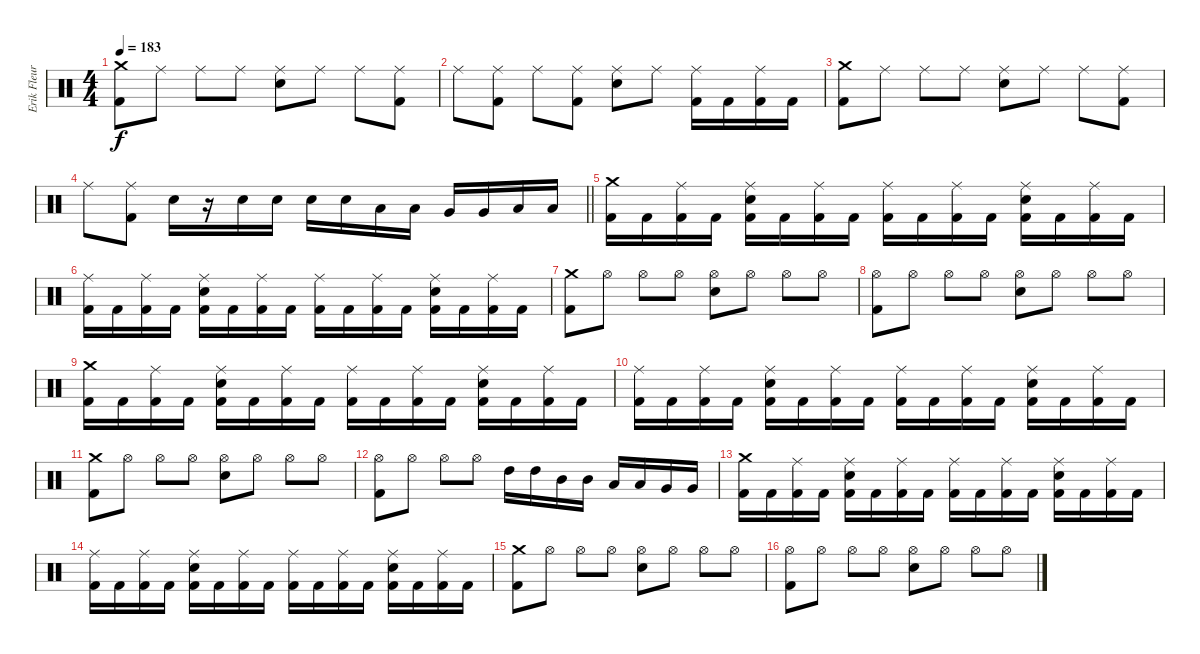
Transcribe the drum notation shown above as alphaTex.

\track ("Erik Fleuren" "Erik Fleur") {instrument percussion}
\staff {score}
\articulation defaults
\ts (4 4)
\tempo 183
\clef neutral
\ks c
("Crash medium (hit)" "Kick (hit) 2").8{dy f} "Ride (middle)".8 "Ride (middle)".8 "Ride (middle)".8 ("Ride (middle)" "Electric Snare (hit)").8 "Ride (middle)".8 "Ride (middle)".8 ("Ride (middle)" "Kick (hit) 2").8 |
"Ride (middle)".8 ("Ride (middle)" "Kick (hit) 2").8 "Ride (middle)".8 ("Ride (middle)" "Kick (hit) 2").8 ("Ride (middle)" "Electric Snare (hit)").8 "Ride (middle)".8 ("Ride (middle)" "Kick (hit) 2").16 "Kick (hit) 2".16 ("Ride (middle)" "Kick (hit) 2").16 "Kick (hit) 2".16 |
("Crash medium (hit)" "Kick (hit) 2").8 "Ride (middle)".8 "Ride (middle)".8 "Ride (middle)".8 ("Ride (middle)" "Electric Snare (hit)").8 "Ride (middle)".8 "Ride (middle)".8 ("Ride (middle)" "Kick (hit) 2").8 |
\barLineRight lightlight "Ride (middle)".8
("Ride (middle)" "Kick (hit) 2").8 "Electric Snare (hit)".16 r.16 "Electric Snare (hit)".16 "Electric Snare (hit)".16 "Electric Snare (hit)".16 "Electric Snare (hit)".16 "Low Tom (hit)".16 "Low Tom (hit)".16 "Very Low Tom (hit)".16 "Very Low Tom (hit)".16 "Low Floor Tom (hit)".16 "Low Floor Tom (hit)".16 |
("Crash medium (hit)" "Kick (hit) 2").16 "Kick (hit) 2".16 ("Ride (middle)" "Kick (hit) 2").16 "Kick (hit) 2".16 ("Ride (middle)" "Electric Snare (hit)" "Kick (hit) 2").16 "Kick (hit) 2".16 ("Ride (middle)" "Kick (hit) 2").16 "Kick (hit) 2".16 ("Ride (middle)" "Kick (hit) 2").16 "Kick (hit) 2".16 ("Ride (middle)" "Kick (hit) 2").16 "Kick (hit) 2".16 ("Ride (middle)" "Electric Snare (hit)" "Kick (hit) 2").16 "Kick (hit) 2".16 ("Ride (middle)" "Kick (hit) 2").16 "Kick (hit) 2".16 |
("Ride (middle)" "Kick (hit) 2").16 "Kick (hit) 2".16 ("Ride (middle)" "Kick (hit) 2").16 "Kick (hit) 2".16 ("Ride (middle)" "Electric Snare (hit)" "Kick (hit) 2").16 "Kick (hit) 2".16 ("Ride (middle)" "Kick (hit) 2").16 "Kick (hit) 2".16 ("Ride (middle)" "Kick (hit) 2").16 "Kick (hit) 2".16 ("Ride (middle)" "Kick (hit) 2").16 "Kick (hit) 2".16 ("Ride (middle)" "Electric Snare (hit)" "Kick (hit) 2").16 "Kick (hit) 2".16 ("Ride (middle)" "Kick (hit) 2").16 "Kick (hit) 2".16 |
("Crash medium (hit)" "Kick (hit) 2").8 "Hi-Hat (open)".8 "Hi-Hat (open)".8 "Hi-Hat (open)".8 ("Hi-Hat (open)" "Electric Snare (hit)").8 "Hi-Hat (open)".8 "Hi-Hat (open)".8 "Hi-Hat (open)".8 |
("Hi-Hat (open)" "Kick (hit) 2").8 "Hi-Hat (open)".8 "Hi-Hat (open)".8 "Hi-Hat (open)".8 ("Hi-Hat (open)" "Electric Snare (hit)").8 "Hi-Hat (open)".8 "Hi-Hat (open)".8 "Hi-Hat (open)".8 |
("Crash medium (hit)" "Kick (hit) 2").16 "Kick (hit) 2".16 ("Ride (middle)" "Kick (hit) 2").16 "Kick (hit) 2".16 ("Ride (middle)" "Electric Snare (hit)" "Kick (hit) 2").16 "Kick (hit) 2".16 ("Ride (middle)" "Kick (hit) 2").16 "Kick (hit) 2".16 ("Ride (middle)" "Kick (hit) 2").16 "Kick (hit) 2".16 ("Ride (middle)" "Kick (hit) 2").16 "Kick (hit) 2".16 ("Ride (middle)" "Electric Snare (hit)" "Kick (hit) 2").16 "Kick (hit) 2".16 ("Ride (middle)" "Kick (hit) 2").16 "Kick (hit) 2".16 |
("Ride (middle)" "Kick (hit) 2").16 "Kick (hit) 2".16 ("Ride (middle)" "Kick (hit) 2").16 "Kick (hit) 2".16 ("Ride (middle)" "Electric Snare (hit)" "Kick (hit) 2").16 "Kick (hit) 2".16 ("Ride (middle)" "Kick (hit) 2").16 "Kick (hit) 2".16 ("Ride (middle)" "Kick (hit) 2").16 "Kick (hit) 2".16 ("Ride (middle)" "Kick (hit) 2").16 "Kick (hit) 2".16 ("Ride (middle)" "Electric Snare (hit)" "Kick (hit) 2").16 "Kick (hit) 2".16 ("Ride (middle)" "Kick (hit) 2").16 "Kick (hit) 2".16 |
("Crash medium (hit)" "Kick (hit) 2").8 "Hi-Hat (open)".8 "Hi-Hat (open)".8 "Hi-Hat (open)".8 ("Hi-Hat (open)" "Electric Snare (hit)").8 "Hi-Hat (open)".8 "Hi-Hat (open)".8 "Hi-Hat (open)".8 |
("Hi-Hat (open)" "Kick (hit) 2").8 "Hi-Hat (open)".8 "Hi-Hat (open)".8 "Hi-Hat (open)".8 "High Tom (hit)".16 "High Tom (hit)".16 "Mid Tom (hit)".16 "Mid Tom (hit)".16 "Low Tom (hit)".16 "Low Tom (hit)".16 "Very Low Tom (hit)".16 "Very Low Tom (hit)".16 |
("Crash medium (hit)" "Kick (hit) 2").16 "Kick (hit) 2".16 ("Ride (middle)" "Kick (hit) 2").16 "Kick (hit) 2".16 ("Ride (middle)" "Electric Snare (hit)" "Kick (hit) 2").16 "Kick (hit) 2".16 ("Ride (middle)" "Kick (hit) 2").16 "Kick (hit) 2".16 ("Ride (middle)" "Kick (hit) 2").16 "Kick (hit) 2".16 ("Ride (middle)" "Kick (hit) 2").16 "Kick (hit) 2".16 ("Ride (middle)" "Electric Snare (hit)" "Kick (hit) 2").16 "Kick (hit) 2".16 ("Ride (middle)" "Kick (hit) 2").16 "Kick (hit) 2".16 |
("Ride (middle)" "Kick (hit) 2").16 "Kick (hit) 2".16 ("Ride (middle)" "Kick (hit) 2").16 "Kick (hit) 2".16 ("Ride (middle)" "Electric Snare (hit)" "Kick (hit) 2").16 "Kick (hit) 2".16 ("Ride (middle)" "Kick (hit) 2").16 "Kick (hit) 2".16 ("Ride (middle)" "Kick (hit) 2").16 "Kick (hit) 2".16 ("Ride (middle)" "Kick (hit) 2").16 "Kick (hit) 2".16 ("Ride (middle)" "Electric Snare (hit)" "Kick (hit) 2").16 "Kick (hit) 2".16 ("Ride (middle)" "Kick (hit) 2").16 "Kick (hit) 2".16 |
("Crash medium (hit)" "Kick (hit) 2").8 "Hi-Hat (open)".8 "Hi-Hat (open)".8 "Hi-Hat (open)".8 ("Hi-Hat (open)" "Electric Snare (hit)").8 "Hi-Hat (open)".8 "Hi-Hat (open)".8 "Hi-Hat (open)".8 |
("Hi-Hat (open)" "Kick (hit) 2").8 "Hi-Hat (open)".8 "Hi-Hat (open)".8 "Hi-Hat (open)".8 ("Hi-Hat (open)" "Electric Snare (hit)").8 "Hi-Hat (open)".8 "Hi-Hat (open)".8 "Hi-Hat (open)".8
